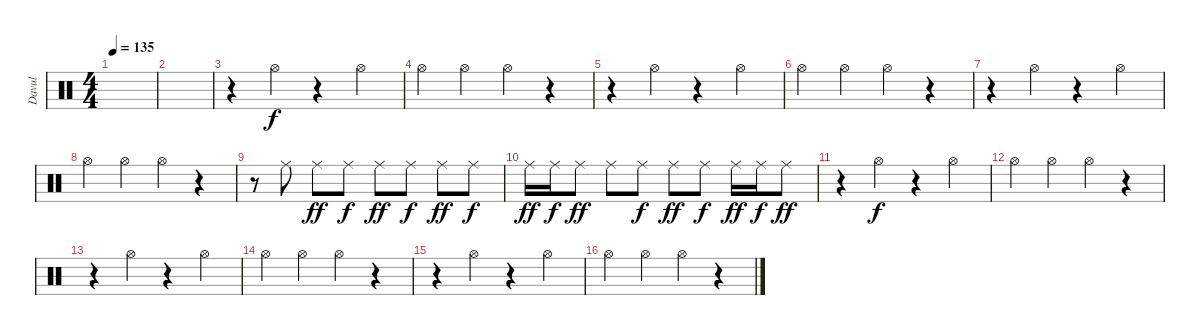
\track ("Davul" "Davul") {instrument percussion}
\staff {score}
\articulation defaults
\ts (4 4)
\section ("" "")
\tempo 135
\clef neutral
\ks c
|
|
\section ("" "")
r.4 "Hi-Hat (open)".4 r.4 "Hi-Hat (open)".4 |
"Hi-Hat (open)".4 "Hi-Hat (open)".4 "Hi-Hat (open)".4 r.4 |
r.4 "Hi-Hat (open)".4 r.4 "Hi-Hat (open)".4 |
"Hi-Hat (open)".4 "Hi-Hat (open)".4 "Hi-Hat (open)".4 r.4 |
r.4 "Hi-Hat (open)".4 r.4 "Hi-Hat (open)".4 |
"Hi-Hat (open)".4 "Hi-Hat (open)".4 "Hi-Hat (open)".4 r.4 |
r.8 "Ride (middle)".8 "Ride (middle)".8{dy ff} "Ride (middle)".8{dy f} "Ride (middle)".8{dy ff} "Ride (middle)".8{dy f} "Ride (middle)".8{dy ff} "Ride (middle)".8{dy f} |
"Ride (middle)".16{dy ff} "Ride (middle)".16{dy f} "Ride (middle)".8{dy ff} "Ride (middle)".8 "Ride (middle)".8{dy f} "Ride (middle)".8{dy ff} "Ride (middle)".8{dy f} "Ride (middle)".16{dy ff} "Ride (middle)".16{dy f} "Ride (middle)".8{dy ff} |
r.4 "Hi-Hat (open)".4{dy f} r.4 "Hi-Hat (open)".4 |
"Hi-Hat (open)".4 "Hi-Hat (open)".4 "Hi-Hat (open)".4 r.4 |
r.4 "Hi-Hat (open)".4 r.4 "Hi-Hat (open)".4 |
"Hi-Hat (open)".4 "Hi-Hat (open)".4 "Hi-Hat (open)".4 r.4 |
r.4 "Hi-Hat (open)".4 r.4 "Hi-Hat (open)".4 |
"Hi-Hat (open)".4 "Hi-Hat (open)".4 "Hi-Hat (open)".4 r.4
